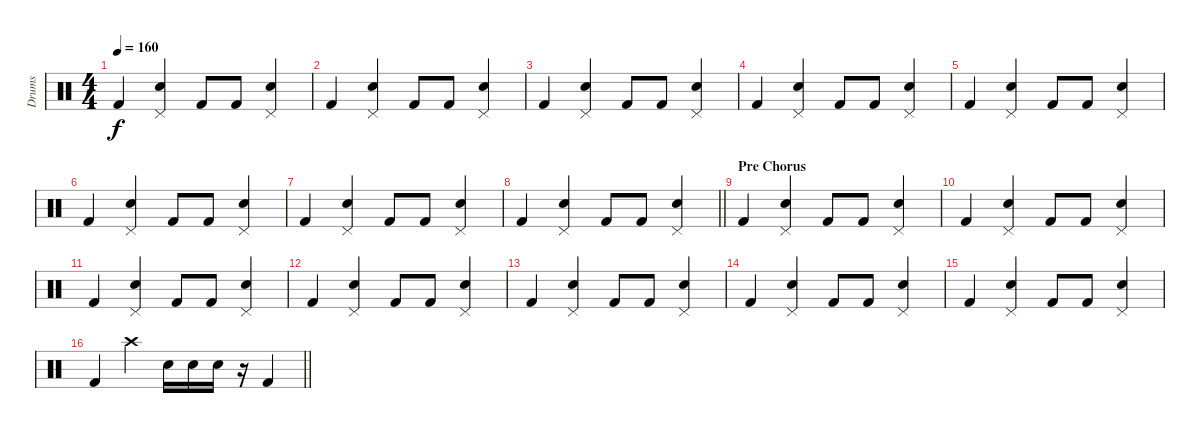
\track ("Drums" "Drums") {instrument percussion}
\staff {score}
\articulation defaults
\ts (4 4)
\tempo 160
\clef neutral
\ks c "Kick (hit) 2".4{dy f}
("Pedal Hi-Hat (hit)" "Electric Snare (hit)").4 "Kick (hit) 2".8 "Kick (hit) 2".8 ("Pedal Hi-Hat (hit)" "Electric Snare (hit)").4 |
"Kick (hit) 2".4 ("Pedal Hi-Hat (hit)" "Electric Snare (hit)").4 "Kick (hit) 2".8 "Kick (hit) 2".8 ("Pedal Hi-Hat (hit)" "Electric Snare (hit)").4 |
"Kick (hit) 2".4 ("Pedal Hi-Hat (hit)" "Electric Snare (hit)").4 "Kick (hit) 2".8 "Kick (hit) 2".8 ("Pedal Hi-Hat (hit)" "Electric Snare (hit)").4 |
"Kick (hit) 2".4 ("Pedal Hi-Hat (hit)" "Electric Snare (hit)").4 "Kick (hit) 2".8 "Kick (hit) 2".8 ("Pedal Hi-Hat (hit)" "Electric Snare (hit)").4 |
"Kick (hit) 2".4 ("Pedal Hi-Hat (hit)" "Electric Snare (hit)").4 "Kick (hit) 2".8 "Kick (hit) 2".8 ("Pedal Hi-Hat (hit)" "Electric Snare (hit)").4 |
"Kick (hit) 2".4 ("Pedal Hi-Hat (hit)" "Electric Snare (hit)").4 "Kick (hit) 2".8 "Kick (hit) 2".8 ("Pedal Hi-Hat (hit)" "Electric Snare (hit)").4 |
"Kick (hit) 2".4 ("Pedal Hi-Hat (hit)" "Electric Snare (hit)").4 "Kick (hit) 2".8 "Kick (hit) 2".8 ("Pedal Hi-Hat (hit)" "Electric Snare (hit)").4 |
\barLineRight lightlight "Kick (hit) 2".4
("Pedal Hi-Hat (hit)" "Electric Snare (hit)").4 "Kick (hit) 2".8 "Kick (hit) 2".8 ("Pedal Hi-Hat (hit)" "Electric Snare (hit)").4 |
\section ("" "Pre Chorus")
"Kick (hit) 2".4 ("Pedal Hi-Hat (hit)" "Electric Snare (hit)").4 "Kick (hit) 2".8 "Kick (hit) 2".8 ("Pedal Hi-Hat (hit)" "Electric Snare (hit)").4 |
"Kick (hit) 2".4 ("Pedal Hi-Hat (hit)" "Electric Snare (hit)").4 "Kick (hit) 2".8 "Kick (hit) 2".8 ("Pedal Hi-Hat (hit)" "Electric Snare (hit)").4 |
"Kick (hit) 2".4 ("Pedal Hi-Hat (hit)" "Electric Snare (hit)").4 "Kick (hit) 2".8 "Kick (hit) 2".8 ("Pedal Hi-Hat (hit)" "Electric Snare (hit)").4 |
"Kick (hit) 2".4 ("Pedal Hi-Hat (hit)" "Electric Snare (hit)").4 "Kick (hit) 2".8 "Kick (hit) 2".8 ("Pedal Hi-Hat (hit)" "Electric Snare (hit)").4 |
"Kick (hit) 2".4 ("Pedal Hi-Hat (hit)" "Electric Snare (hit)").4 "Kick (hit) 2".8 "Kick (hit) 2".8 ("Pedal Hi-Hat (hit)" "Electric Snare (hit)").4 |
"Kick (hit) 2".4 ("Pedal Hi-Hat (hit)" "Electric Snare (hit)").4 "Kick (hit) 2".8 "Kick (hit) 2".8 ("Pedal Hi-Hat (hit)" "Electric Snare (hit)").4 |
"Kick (hit) 2".4 ("Pedal Hi-Hat (hit)" "Electric Snare (hit)").4 "Kick (hit) 2".8 "Kick (hit) 2".8 ("Pedal Hi-Hat (hit)" "Electric Snare (hit)").4 |
\barLineRight lightlight "Kick (hit) 2".4 "Crash high (hit)".4 "Snare (hit) 2".16 "Snare (hit) 2".16 "Snare (hit) 2".16
r.16 "Kick (hit) 2".4
